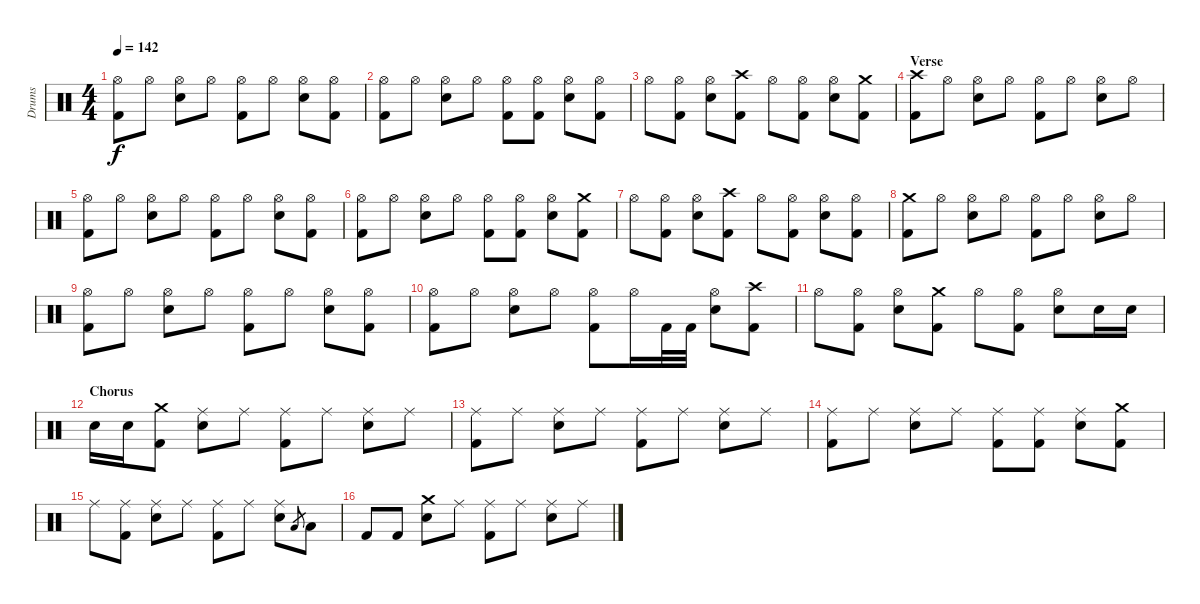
\track ("Drums" "Drums") {instrument percussion}
\staff {score}
\articulation defaults
\ts (4 4)
\tempo 142
\clef neutral
\ks c
("Hi-Hat (open)" "Kick (hit) 2").8{dy f} "Hi-Hat (open)".8 ("Hi-Hat (open)" "Snare (hit) 2").8 "Hi-Hat (open)".8 ("Hi-Hat (open)" "Kick (hit) 2").8 "Hi-Hat (open)".8 ("Hi-Hat (open)" "Snare (hit) 2").8 ("Hi-Hat (open)" "Kick (hit) 2").8 |
("Hi-Hat (open)" "Kick (hit) 2").8 "Hi-Hat (open)".8 ("Hi-Hat (open)" "Snare (hit) 2").8 "Hi-Hat (open)".8 ("Hi-Hat (open)" "Kick (hit) 2").8 ("Hi-Hat (open)" "Kick (hit) 2").8 ("Hi-Hat (open)" "Snare (hit) 2").8 ("Hi-Hat (open)" "Kick (hit) 2").8 |
"Hi-Hat (open)".8 ("Hi-Hat (open)" "Kick (hit) 2").8 ("Hi-Hat (open)" "Snare (hit) 2").8 ("Crash high (hit)" "Kick (hit) 2").8 "Hi-Hat (open)".8 ("Hi-Hat (open)" "Kick (hit) 2").8 ("Hi-Hat (open)" "Snare (hit) 2").8 ("Crash medium (hit)" "Kick (hit) 2").8 |
\section ("" "Verse")
("Crash high (hit)" "Kick (hit) 2").8 "Hi-Hat (open)".8 ("Hi-Hat (open)" "Snare (hit) 2").8 "Hi-Hat (open)".8 ("Hi-Hat (open)" "Kick (hit) 2").8 "Hi-Hat (open)".8 ("Hi-Hat (open)" "Snare (hit) 2").8 "Hi-Hat (open)".8 |
("Hi-Hat (open)" "Kick (hit) 2").8 "Hi-Hat (open)".8 ("Hi-Hat (open)" "Snare (hit) 2").8 "Hi-Hat (open)".8 ("Hi-Hat (open)" "Kick (hit) 2").8 "Hi-Hat (open)".8 ("Hi-Hat (open)" "Snare (hit) 2").8 ("Hi-Hat (open)" "Kick (hit) 2").8 |
("Hi-Hat (open)" "Kick (hit) 2").8 "Hi-Hat (open)".8 ("Hi-Hat (open)" "Snare (hit) 2").8 "Hi-Hat (open)".8 ("Hi-Hat (open)" "Kick (hit) 2").8 ("Hi-Hat (open)" "Kick (hit) 2").8 ("Hi-Hat (open)" "Snare (hit) 2").8 ("Crash medium (hit)" "Kick (hit) 2").8 |
"Hi-Hat (open)".8 ("Hi-Hat (open)" "Kick (hit) 2").8 ("Hi-Hat (open)" "Snare (hit) 2").8 ("Crash high (hit)" "Kick (hit) 2").8 "Hi-Hat (open)".8 ("Hi-Hat (open)" "Kick (hit) 2").8 ("Hi-Hat (open)" "Snare (hit) 2").8 ("Hi-Hat (open)" "Kick (hit) 2").8 |
("Crash medium (hit)" "Kick (hit) 2").8 "Hi-Hat (open)".8 ("Hi-Hat (open)" "Snare (hit) 2").8 "Hi-Hat (open)".8 ("Hi-Hat (open)" "Kick (hit) 2").8 "Hi-Hat (open)".8 ("Hi-Hat (open)" "Snare (hit) 2").8 "Hi-Hat (open)".8 |
("Hi-Hat (open)" "Kick (hit) 2").8 "Hi-Hat (open)".8 ("Hi-Hat (open)" "Snare (hit) 2").8 "Hi-Hat (open)".8 ("Hi-Hat (open)" "Kick (hit) 2").8 "Hi-Hat (open)".8 ("Hi-Hat (open)" "Snare (hit) 2").8 ("Hi-Hat (open)" "Kick (hit) 2").8 |
("Hi-Hat (open)" "Kick (hit) 2").8 "Hi-Hat (open)".8 ("Hi-Hat (open)" "Snare (hit) 2").8 "Hi-Hat (open)".8 ("Hi-Hat (open)" "Kick (hit) 2").8 "Hi-Hat (open)".16 "Kick (hit) 2".32 "Kick (hit) 2".32 ("Hi-Hat (open)" "Snare (hit) 2").8 ("Crash high (hit)" "Kick (hit) 2").8 |
"Hi-Hat (open)".8 ("Hi-Hat (open)" "Kick (hit) 2").8 ("Hi-Hat (open)" "Snare (hit) 2").8 ("Crash medium (hit)" "Kick (hit) 2").8 "Hi-Hat (open)".8 ("Hi-Hat (open)" "Kick (hit) 2").8 ("Hi-Hat (open)" "Snare (hit) 2").8 "Snare (hit) 2".16 "Snare (hit) 2".16 |
\section ("" "Chorus")
"Snare (hit) 2".16 "Snare (hit) 2".16 ("Crash medium (hit)" "Kick (hit) 2").8 ("Ride (middle)" "Snare (hit) 2").8 "Ride (middle)".8 ("Ride (middle)" "Kick (hit) 2").8 "Ride (middle)".8 ("Ride (middle)" "Snare (hit) 2").8 "Ride (middle)".8 |
("Ride (middle)" "Kick (hit) 2").8 "Ride (middle)".8 ("Ride (middle)" "Snare (hit) 2").8 "Ride (middle)".8 ("Ride (middle)" "Kick (hit) 2").8 "Ride (middle)".8 ("Ride (middle)" "Snare (hit) 2").8 "Ride (middle)".8 |
("Ride (middle)" "Kick (hit) 2").8 "Ride (middle)".8 ("Ride (middle)" "Snare (hit) 2").8 "Ride (middle)".8 ("Ride (middle)" "Kick (hit) 2").8 ("Ride (middle)" "Kick (hit) 2").8 ("Ride (middle)" "Snare (hit) 2").8 ("Crash medium (hit)" "Kick (hit) 2").8 |
"Ride (middle)".8 ("Ride (middle)" "Kick (hit) 2").8 ("Ride (middle)" "Snare (hit) 2").8 "Ride (middle)".8 ("Ride (middle)" "Kick (hit) 2").8 "Ride (middle)".8 ("Ride (middle)" "Snare (hit) 2").8 "Low Floor Tom (hit)".8{gr} "Low Floor Tom (hit)".8 |
"Kick (hit) 2".8 "Kick (hit) 2".8 ("Crash medium (hit)" "Snare (hit) 2").8 "Ride (middle)".8 ("Ride (middle)" "Kick (hit) 2").8 "Ride (middle)".8 ("Ride (middle)" "Snare (hit) 2").8 "Ride (middle)".8
